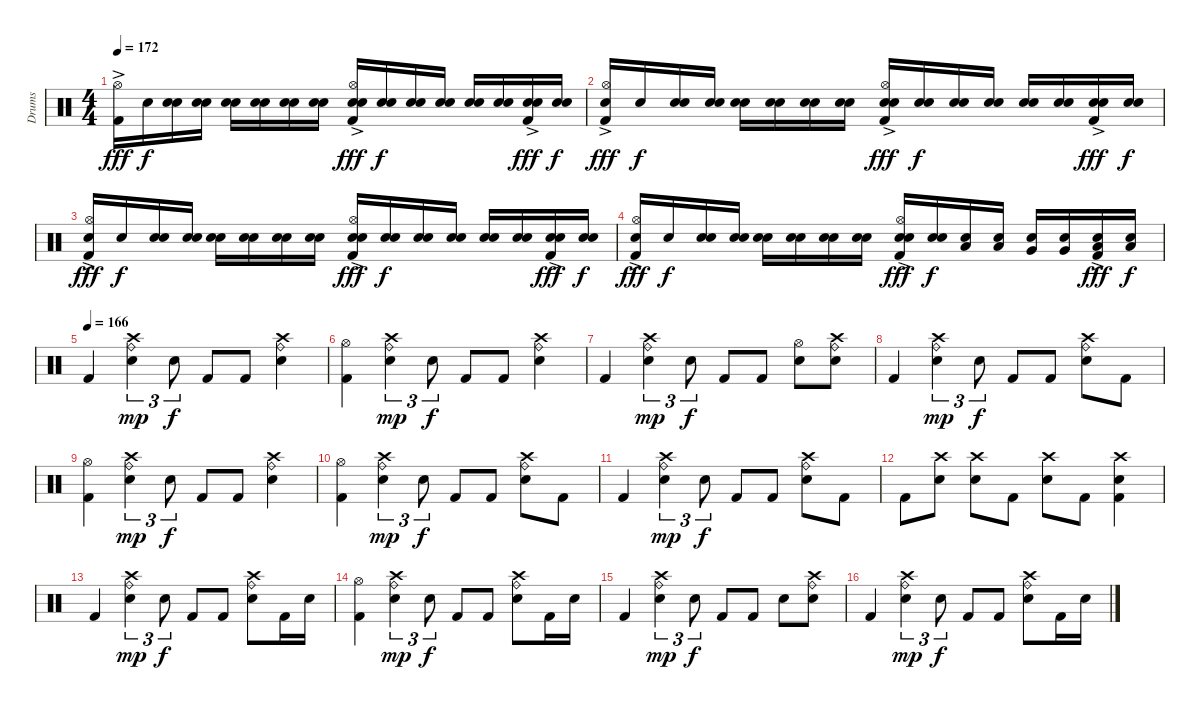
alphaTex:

\track ("Drums" "Drums") {instrument percussion}
\staff {score}
\articulation defaults
\ts (4 4)
\tempo 172
\clef neutral
\ks c
("Kick (hit) 2"{ac} "Hi-Hat (open)").16{dy fff} "Electric Snare (hit)".16{dy f} ("Snare (hit) 2" "Electric Snare (hit)").16 ("Snare (hit) 2" "Electric Snare (hit)").16 ("Snare (hit) 2" "Electric Snare (hit)").16 ("Snare (hit) 2" "Electric Snare (hit)").16 ("Snare (hit) 2" "Electric Snare (hit)").16 ("Snare (hit) 2" "Electric Snare (hit)").16 ("Kick (hit) 2"{ac} "Hi-Hat (open)" "Snare (hit) 2" "Electric Snare (hit)").16{dy fff} ("Snare (hit) 2" "Electric Snare (hit)").16{dy f} ("Snare (hit) 2" "Electric Snare (hit)").16 ("Snare (hit) 2" "Electric Snare (hit)").16 ("Snare (hit) 2" "Electric Snare (hit)").16 ("Snare (hit) 2" "Electric Snare (hit)").16 ("Kick (hit) 2"{ac} "Snare (hit) 2" "Electric Snare (hit)").16{dy fff} ("Snare (hit) 2" "Electric Snare (hit)").16{dy f} |
("Kick (hit) 2"{ac} "Hi-Hat (open)" "Electric Snare (hit)").16{dy fff} "Electric Snare (hit)".16{dy f} ("Snare (hit) 2" "Electric Snare (hit)").16 ("Snare (hit) 2" "Electric Snare (hit)").16 ("Snare (hit) 2" "Electric Snare (hit)").16 ("Snare (hit) 2" "Electric Snare (hit)").16 ("Snare (hit) 2" "Electric Snare (hit)").16 ("Snare (hit) 2" "Electric Snare (hit)").16 ("Kick (hit) 2"{ac} "Hi-Hat (open)" "Snare (hit) 2" "Electric Snare (hit)").16{dy fff} ("Snare (hit) 2" "Electric Snare (hit)").16{dy f} ("Snare (hit) 2" "Electric Snare (hit)").16 ("Snare (hit) 2" "Electric Snare (hit)").16 ("Snare (hit) 2" "Electric Snare (hit)").16 ("Snare (hit) 2" "Electric Snare (hit)").16 ("Kick (hit) 2"{ac} "Snare (hit) 2" "Electric Snare (hit)").16{dy fff} ("Snare (hit) 2" "Electric Snare (hit)").16{dy f} |
("Kick (hit) 2"{ac} "Hi-Hat (open)" "Electric Snare (hit)").16{dy fff} "Electric Snare (hit)".16{dy f} ("Snare (hit) 2" "Electric Snare (hit)").16 ("Snare (hit) 2" "Electric Snare (hit)").16 ("Snare (hit) 2" "Electric Snare (hit)").16 ("Snare (hit) 2" "Electric Snare (hit)").16 ("Snare (hit) 2" "Electric Snare (hit)").16 ("Snare (hit) 2" "Electric Snare (hit)").16 ("Kick (hit) 2"{ac} "Hi-Hat (open)" "Snare (hit) 2" "Electric Snare (hit)").16{dy fff} ("Snare (hit) 2" "Electric Snare (hit)").16{dy f} ("Snare (hit) 2" "Electric Snare (hit)").16 ("Snare (hit) 2" "Electric Snare (hit)").16 ("Snare (hit) 2" "Electric Snare (hit)").16 ("Snare (hit) 2" "Electric Snare (hit)").16 ("Kick (hit) 2"{ac} "Snare (hit) 2" "Electric Snare (hit)").16{dy fff} ("Snare (hit) 2" "Electric Snare (hit)").16{dy f} |
("Kick (hit) 2"{ac} "Hi-Hat (open)" "Electric Snare (hit)").16{dy fff} "Electric Snare (hit)".16{dy f} ("Snare (hit) 2" "Electric Snare (hit)").16 ("Snare (hit) 2" "Electric Snare (hit)").16 ("Snare (hit) 2" "Electric Snare (hit)").16 ("Snare (hit) 2" "Electric Snare (hit)").16 ("Snare (hit) 2" "Electric Snare (hit)").16 ("Snare (hit) 2" "Electric Snare (hit)").16 ("Kick (hit) 2"{ac} "Hi-Hat (open)" "Snare (hit) 2" "Electric Snare (hit)").16{dy fff} ("Snare (hit) 2" "Electric Snare (hit)").16{dy f} ("Low Tom (hit)" "Electric Snare (hit)").16 ("Low Tom (hit)" "Electric Snare (hit)").16 ("Very Low Tom (hit)" "Electric Snare (hit)").16 ("Very Low Tom (hit)" "Electric Snare (hit)").16 ("Kick (hit) 2"{ac} "Low Floor Tom (hit)" "Electric Snare (hit)").16{dy fff} ("Low Floor Tom (hit)" "Electric Snare (hit)").16{dy f} |
\tempo (166)
"Kick (hit) 2".4 ("Crash high (hit)" "Electric Snare (hit)" "Ride (bell)").4{tu (3 2) dy mp} "Electric Snare (hit)".8{tu (3 2) dy f} "Kick (hit) 2".8 "Kick (hit) 2".8 ("Ride (bell)" "Crash high (hit)" "Electric Snare (hit)").4 |
("Kick (hit) 2" "Hi-Hat (open)").4 ("Crash high (hit)" "Electric Snare (hit)" "Ride (bell)").4{tu (3 2) dy mp} "Electric Snare (hit)".8{tu (3 2) dy f} "Kick (hit) 2".8 "Kick (hit) 2".8 ("Ride (bell)" "Crash high (hit)" "Electric Snare (hit)").4 |
"Kick (hit) 2".4 ("Crash high (hit)" "Electric Snare (hit)" "Ride (bell)").4{tu (3 2) dy mp} "Electric Snare (hit)".8{tu (3 2) dy f} "Kick (hit) 2".8 "Kick (hit) 2".8 ("Electric Snare (hit)" "Hi-Hat (open)").8 ("Ride (bell)" "Crash high (hit)" "Electric Snare (hit)").8 |
"Kick (hit) 2".4 ("Crash high (hit)" "Electric Snare (hit)" "Ride (bell)").4{tu (3 2) dy mp} "Electric Snare (hit)".8{tu (3 2) dy f} "Kick (hit) 2".8 "Kick (hit) 2".8 ("Ride (bell)" "Crash high (hit)" "Electric Snare (hit)").8 "Kick (hit) 2".8 |
("Kick (hit) 2" "Hi-Hat (open)").4 ("Crash high (hit)" "Electric Snare (hit)" "Ride (bell)").4{tu (3 2) dy mp} "Electric Snare (hit)".8{tu (3 2) dy f} "Kick (hit) 2".8 "Kick (hit) 2".8 ("Ride (bell)" "Crash high (hit)" "Electric Snare (hit)").4 |
("Kick (hit) 2" "Hi-Hat (open)").4 ("Crash high (hit)" "Electric Snare (hit)" "Ride (bell)").4{tu (3 2) dy mp} "Electric Snare (hit)".8{tu (3 2) dy f} "Kick (hit) 2".8 "Kick (hit) 2".8 ("Ride (bell)" "Crash high (hit)" "Electric Snare (hit)").8 "Kick (hit) 2".8 |
"Kick (hit) 2".4 ("Crash high (hit)" "Electric Snare (hit)" "Ride (bell)").4{tu (3 2) dy mp} "Electric Snare (hit)".8{tu (3 2) dy f} "Kick (hit) 2".8 "Kick (hit) 2".8 ("Ride (bell)" "Crash high (hit)" "Electric Snare (hit)").8 "Kick (hit) 2".8 |
"Kick (hit) 2".8 ("Electric Snare (hit)" "Crash high (hit)").8 ("Electric Snare (hit)" "Crash high (hit)").8 "Kick (hit) 2".8 ("Electric Snare (hit)" "Crash high (hit)").8 "Kick (hit) 2".8 ("Electric Snare (hit)" "Crash high (hit)" "Kick (hit) 2").4 |
"Kick (hit) 2".4 ("Crash high (hit)" "Electric Snare (hit)" "Ride (bell)").4{tu (3 2) dy mp} "Electric Snare (hit)".8{tu (3 2) dy f} "Kick (hit) 2".8 "Kick (hit) 2".8 ("Ride (bell)" "Crash high (hit)" "Electric Snare (hit)").8 "Kick (hit) 2".16 "Electric Snare (hit)".16 |
("Kick (hit) 2" "Hi-Hat (open)").4 ("Crash high (hit)" "Electric Snare (hit)" "Ride (bell)").4{tu (3 2) dy mp} "Electric Snare (hit)".8{tu (3 2) dy f} "Kick (hit) 2".8 "Kick (hit) 2".8 ("Ride (bell)" "Crash high (hit)" "Electric Snare (hit)").8 "Kick (hit) 2".16 "Electric Snare (hit)".16 |
"Kick (hit) 2".4 ("Crash high (hit)" "Electric Snare (hit)" "Ride (bell)").4{tu (3 2) dy mp} "Electric Snare (hit)".8{tu (3 2) dy f} "Kick (hit) 2".8 "Kick (hit) 2".8 "Electric Snare (hit)".8 ("Ride (bell)" "Crash high (hit)" "Electric Snare (hit)").8 |
"Kick (hit) 2".4 ("Crash high (hit)" "Electric Snare (hit)" "Ride (bell)").4{tu (3 2) dy mp} "Electric Snare (hit)".8{tu (3 2) dy f} "Kick (hit) 2".8 "Kick (hit) 2".8 ("Ride (bell)" "Crash high (hit)" "Electric Snare (hit)").8 "Kick (hit) 2".16 "Electric Snare (hit)".16
